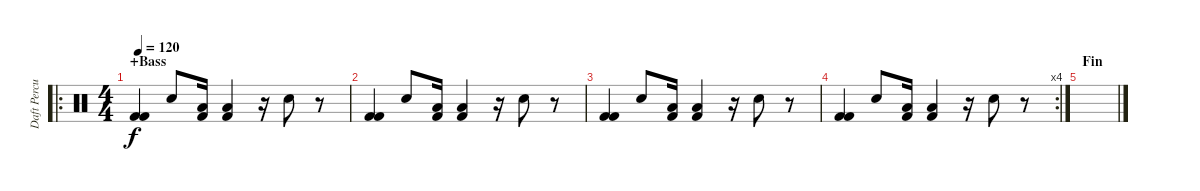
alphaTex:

\track ("Daft Percussion 2" "Daft Percu") {instrument percussion}
\staff {score}
\articulation defaults
\ro
\ts (4 4)
\section ("" "+Bass")
\tempo 120
\clef neutral
\ks c
("Kick (hit) 2" "Kick (hit) 2").4{dy f} "Electric Snare (hit)".8 ("Low Floor Tom (hit)" "Kick (hit) 2").16 ("Low Floor Tom (hit)" "Kick (hit) 2").4 r.16 "Electric Snare (hit)".8 r.8 |
("Kick (hit) 2" "Kick (hit) 2").4 "Electric Snare (hit)".8 ("Low Floor Tom (hit)" "Kick (hit) 2").16 ("Low Floor Tom (hit)" "Kick (hit) 2").4 r.16 "Electric Snare (hit)".8 r.8 |
("Kick (hit) 2" "Kick (hit) 2").4 "Electric Snare (hit)".8 ("Low Floor Tom (hit)" "Kick (hit) 2").16 ("Low Floor Tom (hit)" "Kick (hit) 2").4 r.16 "Electric Snare (hit)".8 r.8 |
\rc 4
("Kick (hit) 2" "Kick (hit) 2").4 "Electric Snare (hit)".8 ("Low Floor Tom (hit)" "Kick (hit) 2").16 ("Low Floor Tom (hit)" "Kick (hit) 2").4 r.16 "Electric Snare (hit)".8 r.8 |
\section ("" "Fin")
